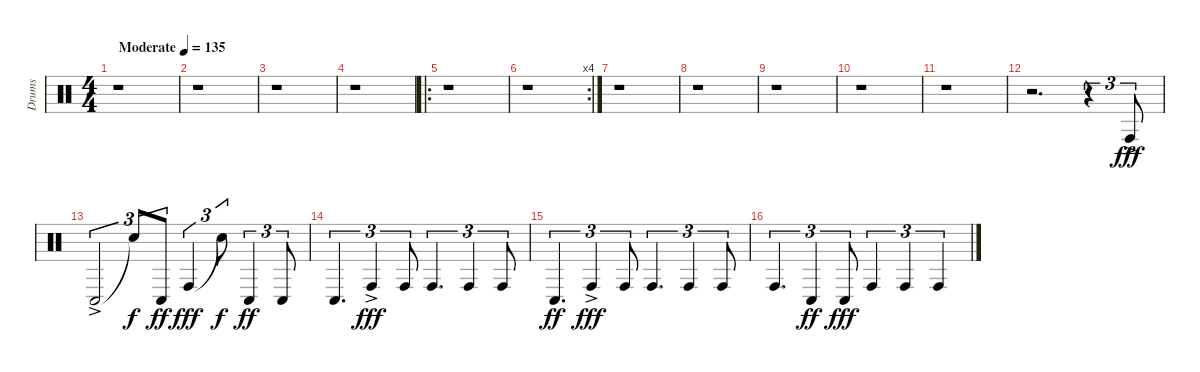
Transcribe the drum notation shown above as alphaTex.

\track ("Drums" "Drums") {instrument percussion}
\staff {score}
\articulation defaults
\ts (4 4)
\tempo (135 "Moderate")
\clef neutral
\ks c
r.1{dy fff} |
r.1 |
r.1 |
r.1 |
\ro
r.1 |
\rc 4
r.1 |
r.1 |
r.1 |
r.1 |
r.1 |
r.1 |
r.2{d} r.4{tu (3 2)} "Conga high (hit)"{ac}.8{tu (3 2)} |
"Conga low (hit)"{ac}.2{tu (3 2)} "Snare (hit)"{t}.8{tu (3 2) dy f} "Conga low (hit)".8{tu (3 2) dy ff} "Conga high (hit)".4{tu (3 2) dy fff} "Snare (hit)"{t}.8{tu (3 2) dy f} "Conga low (hit)".4{tu (3 2) dy ff} "Conga low (hit)".8{tu (3 2)} |
"Conga low (hit)".4{d tu (3 2)} "Conga high (hit)"{ac}.4{tu (3 2) dy fff} "Conga high (hit)".8{tu (3 2)} "Conga high (hit)".4{d tu (3 2)} "Conga high (hit)".4{tu (3 2)} "Conga high (hit)".8{tu (3 2)} |
"Conga low (hit)".4{d tu (3 2) dy ff} "Conga high (hit)"{ac}.4{tu (3 2) dy fff} "Conga high (hit)".8{tu (3 2)} "Conga high (hit)".4{d tu (3 2)} "Conga high (hit)".4{tu (3 2)} "Conga high (hit)".8{tu (3 2)} |
"Conga high (hit)".4{d tu (3 2)} "Conga low (hit)".4{tu (3 2) dy ff} "Conga low (hit)".8{tu (3 2) dy fff} "Conga high (hit)".4{tu (3 2)} "Conga high (hit)".4{tu (3 2)} "Conga high (hit)".4{tu (3 2)}
